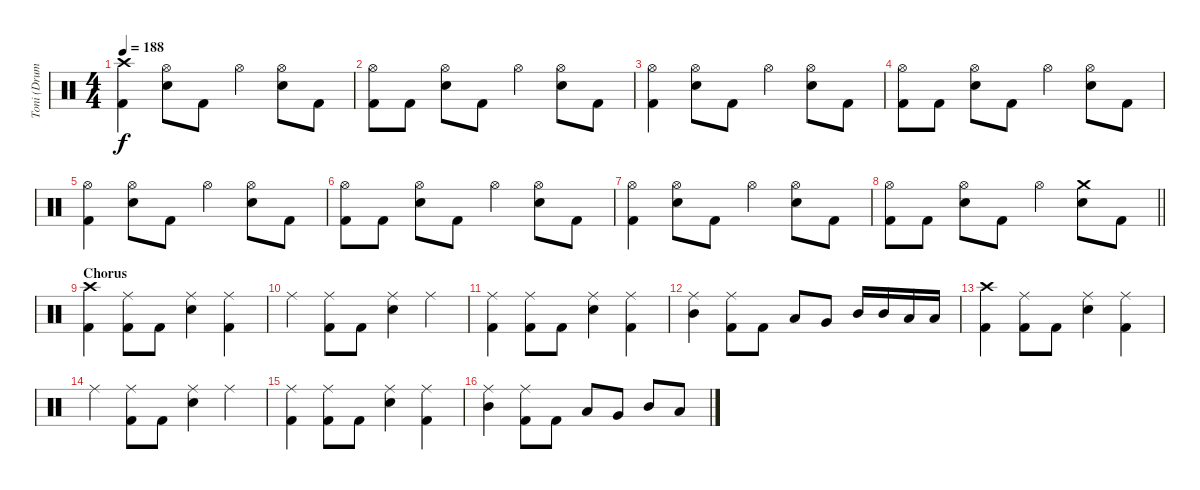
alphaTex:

\track ("Toni (Drums)" "Toni (Drum") {instrument percussion}
\staff {score}
\articulation defaults
\ts (4 4)
\tempo 188
\clef neutral
\ks c
("Crash high (hit)" "Kick (hit) 2").4{dy f} ("Hi-Hat (open)" "Electric Snare (hit)").8 "Kick (hit) 2".8 "Hi-Hat (open)".4 ("Hi-Hat (open)" "Electric Snare (hit)").8 "Kick (hit) 2".8 |
("Hi-Hat (open)" "Kick (hit) 2").8 "Kick (hit) 2".8 ("Hi-Hat (open)" "Electric Snare (hit)").8 "Kick (hit) 2".8 "Hi-Hat (open)".4 ("Hi-Hat (open)" "Electric Snare (hit)").8 "Kick (hit) 2".8 |
("Hi-Hat (open)" "Kick (hit) 2").4 ("Hi-Hat (open)" "Electric Snare (hit)").8 "Kick (hit) 2".8 "Hi-Hat (open)".4 ("Hi-Hat (open)" "Electric Snare (hit)").8 "Kick (hit) 2".8 |
("Hi-Hat (open)" "Kick (hit) 2").8 "Kick (hit) 2".8 ("Hi-Hat (open)" "Electric Snare (hit)").8 "Kick (hit) 2".8 "Hi-Hat (open)".4 ("Hi-Hat (open)" "Electric Snare (hit)").8 "Kick (hit) 2".8 |
("Hi-Hat (open)" "Kick (hit) 2").4 ("Hi-Hat (open)" "Electric Snare (hit)").8 "Kick (hit) 2".8 "Hi-Hat (open)".4 ("Hi-Hat (open)" "Electric Snare (hit)").8 "Kick (hit) 2".8 |
("Hi-Hat (open)" "Kick (hit) 2").8 "Kick (hit) 2".8 ("Hi-Hat (open)" "Electric Snare (hit)").8 "Kick (hit) 2".8 "Hi-Hat (open)".4 ("Hi-Hat (open)" "Electric Snare (hit)").8 "Kick (hit) 2".8 |
("Hi-Hat (open)" "Kick (hit) 2").4 ("Hi-Hat (open)" "Electric Snare (hit)").8 "Kick (hit) 2".8 "Hi-Hat (open)".4 ("Hi-Hat (open)" "Electric Snare (hit)").8 "Kick (hit) 2".8 |
\barLineRight lightlight
("Hi-Hat (open)" "Kick (hit) 2").8 "Kick (hit) 2".8 ("Hi-Hat (open)" "Electric Snare (hit)").8 "Kick (hit) 2".8 "Hi-Hat (open)".4 ("Crash medium (hit)" "Electric Snare (hit)").8 "Kick (hit) 2".8 |
\section ("" "Chorus")
("Crash high (hit)" "Kick (hit) 2").4 ("Ride (middle)" "Kick (hit) 2").8 "Kick (hit) 2".8 ("Ride (middle)" "Electric Snare (hit)").4 ("Ride (middle)" "Kick (hit) 2").4 |
"Ride (middle)".4 ("Ride (middle)" "Kick (hit) 2").8 "Kick (hit) 2".8 ("Ride (middle)" "Electric Snare (hit)").4 "Ride (middle)".4 |
("Ride (middle)" "Kick (hit) 2").4 ("Ride (middle)" "Kick (hit) 2").8 "Kick (hit) 2".8 ("Ride (middle)" "Electric Snare (hit)").4 ("Ride (middle)" "Kick (hit) 2").4 |
("Ride (middle)" "Mid Tom (hit)").4 ("Ride (middle)" "Kick (hit) 2").8 "Kick (hit) 2".8 "Low Tom (hit)".8 "Very Low Tom (hit)".8 "Mid Tom (hit)".16 "Mid Tom (hit)".16 "Low Tom (hit)".16 "Low Tom (hit)".16 |
("Crash high (hit)" "Kick (hit) 2").4 ("Ride (middle)" "Kick (hit) 2").8 "Kick (hit) 2".8 ("Ride (middle)" "Electric Snare (hit)").4 ("Ride (middle)" "Kick (hit) 2").4 |
"Ride (middle)".4 ("Ride (middle)" "Kick (hit) 2").8 "Kick (hit) 2".8 ("Ride (middle)" "Electric Snare (hit)").4 "Ride (middle)".4 |
("Ride (middle)" "Kick (hit) 2").4 ("Ride (middle)" "Kick (hit) 2").8 "Kick (hit) 2".8 ("Ride (middle)" "Electric Snare (hit)").4 ("Ride (middle)" "Kick (hit) 2").4 |
("Ride (middle)" "Mid Tom (hit)").4 ("Ride (middle)" "Kick (hit) 2").8 "Kick (hit) 2".8 "Low Tom (hit)".8 "Very Low Tom (hit)".8 "Mid Tom (hit)".8 "Low Tom (hit)".8
